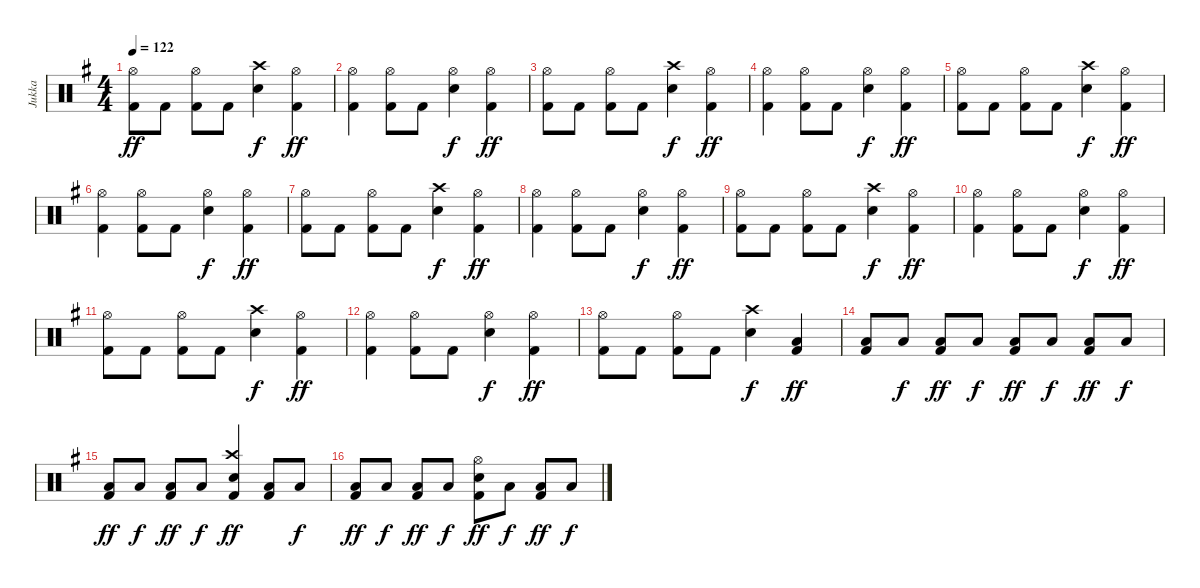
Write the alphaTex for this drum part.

\track ("Jukka" "Jukka") {instrument percussion}
\staff {score}
\articulation defaults
\ts (4 4)
\tempo 122
\clef neutral
\ks g
("Hi-Hat (open)" "Kick (hit) 2").8{dy ff} "Kick (hit) 2".8 ("Hi-Hat (open)" "Kick (hit) 2").8 "Kick (hit) 2".8 ("Crash high (hit)" "Electric Snare (hit)").4{dy f} ("Hi-Hat (open)" "Kick (hit) 2").4{dy ff} |
("Hi-Hat (open)" "Kick (hit) 2").4 ("Hi-Hat (open)" "Kick (hit) 2").8 "Kick (hit) 2".8 ("Hi-Hat (open)" "Electric Snare (hit)").4{dy f} ("Hi-Hat (open)" "Kick (hit) 2").4{dy ff} |
("Hi-Hat (open)" "Kick (hit) 2").8 "Kick (hit) 2".8 ("Hi-Hat (open)" "Kick (hit) 2").8 "Kick (hit) 2".8 ("Crash high (hit)" "Electric Snare (hit)").4{dy f} ("Hi-Hat (open)" "Kick (hit) 2").4{dy ff} |
("Hi-Hat (open)" "Kick (hit) 2").4 ("Hi-Hat (open)" "Kick (hit) 2").8 "Kick (hit) 2".8 ("Hi-Hat (open)" "Electric Snare (hit)").4{dy f} ("Hi-Hat (open)" "Kick (hit) 2").4{dy ff} |
("Hi-Hat (open)" "Kick (hit) 2").8 "Kick (hit) 2".8 ("Hi-Hat (open)" "Kick (hit) 2").8 "Kick (hit) 2".8 ("Crash high (hit)" "Electric Snare (hit)").4{dy f} ("Hi-Hat (open)" "Kick (hit) 2").4{dy ff} |
("Hi-Hat (open)" "Kick (hit) 2").4 ("Hi-Hat (open)" "Kick (hit) 2").8 "Kick (hit) 2".8 ("Hi-Hat (open)" "Electric Snare (hit)").4{dy f} ("Hi-Hat (open)" "Kick (hit) 2").4{dy ff} |
("Hi-Hat (open)" "Kick (hit) 2").8 "Kick (hit) 2".8 ("Hi-Hat (open)" "Kick (hit) 2").8 "Kick (hit) 2".8 ("Crash high (hit)" "Electric Snare (hit)").4{dy f} ("Hi-Hat (open)" "Kick (hit) 2").4{dy ff} |
("Hi-Hat (open)" "Kick (hit) 2").4 ("Hi-Hat (open)" "Kick (hit) 2").8 "Kick (hit) 2".8 ("Hi-Hat (open)" "Electric Snare (hit)").4{dy f} ("Hi-Hat (open)" "Kick (hit) 2").4{dy ff} |
("Hi-Hat (open)" "Kick (hit) 2").8 "Kick (hit) 2".8 ("Hi-Hat (open)" "Kick (hit) 2").8 "Kick (hit) 2".8 ("Crash high (hit)" "Electric Snare (hit)").4{dy f} ("Hi-Hat (open)" "Kick (hit) 2").4{dy ff} |
("Hi-Hat (open)" "Kick (hit) 2").4 ("Hi-Hat (open)" "Kick (hit) 2").8 "Kick (hit) 2".8 ("Hi-Hat (open)" "Electric Snare (hit)").4{dy f} ("Hi-Hat (open)" "Kick (hit) 2").4{dy ff} |
("Hi-Hat (open)" "Kick (hit) 2").8 "Kick (hit) 2".8 ("Hi-Hat (open)" "Kick (hit) 2").8 "Kick (hit) 2".8 ("Crash high (hit)" "Electric Snare (hit)").4{dy f} ("Hi-Hat (open)" "Kick (hit) 2").4{dy ff} |
("Hi-Hat (open)" "Kick (hit) 2").4 ("Hi-Hat (open)" "Kick (hit) 2").8 "Kick (hit) 2".8 ("Hi-Hat (open)" "Electric Snare (hit)").4{dy f} ("Hi-Hat (open)" "Kick (hit) 2").4{dy ff} |
("Hi-Hat (open)" "Kick (hit) 2").8 "Kick (hit) 2".8 ("Hi-Hat (open)" "Kick (hit) 2").8 "Kick (hit) 2".8 ("Crash high (hit)" "Electric Snare (hit)").4{dy f} ("Low Floor Tom (hit)" "Kick (hit) 2").4{dy ff} |
("Low Floor Tom (hit)" "Kick (hit) 2").8 "Low Floor Tom (hit)".8{dy f} ("Low Floor Tom (hit)" "Kick (hit) 2").8{dy ff} "Low Floor Tom (hit)".8{dy f} ("Low Floor Tom (hit)" "Kick (hit) 2").8{dy ff} "Low Floor Tom (hit)".8{dy f} ("Low Floor Tom (hit)" "Kick (hit) 2").8{dy ff} "Low Floor Tom (hit)".8{dy f} |
("Low Floor Tom (hit)" "Kick (hit) 2").8{dy ff} "Low Floor Tom (hit)".8{dy f} ("Low Floor Tom (hit)" "Kick (hit) 2").8{dy ff} "Low Floor Tom (hit)".8{dy f} ("Crash high (hit)" "Electric Snare (hit)" "Kick (hit) 2").4{dy ff} ("Low Floor Tom (hit)" "Kick (hit) 2").8 "Low Floor Tom (hit)".8{dy f} |
("Low Floor Tom (hit)" "Kick (hit) 2").8{dy ff} "Low Floor Tom (hit)".8{dy f} ("Low Floor Tom (hit)" "Kick (hit) 2").8{dy ff} "Low Floor Tom (hit)".8{dy f} ("Hi-Hat (open)" "Electric Snare (hit)" "Kick (hit) 2").8{dy ff} "Low Floor Tom (hit)".8{dy f} ("Low Floor Tom (hit)" "Kick (hit) 2").8{dy ff} "Low Floor Tom (hit)".8{dy f}
